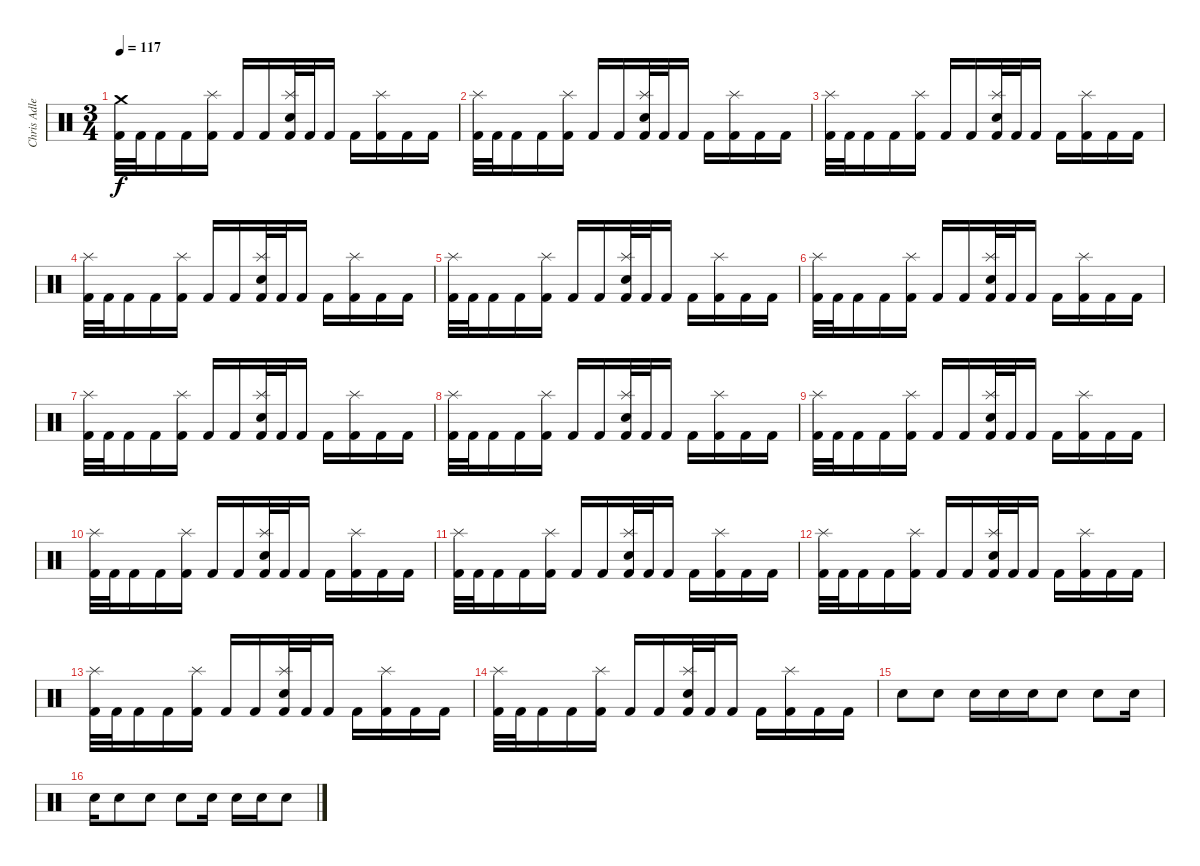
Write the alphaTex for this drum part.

\track ("Chris Adler" "Chris Adle") {instrument percussion}
\staff {score}
\articulation defaults
\ts (3 4)
\tempo 117
\clef neutral
\ks c
("Crash medium (hit)" "Kick (hit) 2").32{dy f} "Kick (hit) 2".32 "Kick (hit) 2".16 "Kick (hit) 2".16 ("Splash (hit)" "Kick (hit) 2").16 "Kick (hit) 2".16 "Kick (hit) 2".16 ("Splash (hit)" "Electric Snare (hit)" "Kick (hit) 2").32 "Kick (hit) 2".32 "Kick (hit) 2".16 "Kick (hit) 2".16 ("Splash (hit)" "Kick (hit) 2").16 "Kick (hit) 2".16 "Kick (hit) 2".16 |
("Splash (hit)" "Kick (hit) 2").32 "Kick (hit) 2".32 "Kick (hit) 2".16 "Kick (hit) 2".16 ("Splash (hit)" "Kick (hit) 2").16 "Kick (hit) 2".16 "Kick (hit) 2".16 ("Splash (hit)" "Electric Snare (hit)" "Kick (hit) 2").32 "Kick (hit) 2".32 "Kick (hit) 2".16 "Kick (hit) 2".16 ("Splash (hit)" "Kick (hit) 2").16 "Kick (hit) 2".16 "Kick (hit) 2".16 |
("Splash (hit)" "Kick (hit) 2").32 "Kick (hit) 2".32 "Kick (hit) 2".16 "Kick (hit) 2".16 ("Splash (hit)" "Kick (hit) 2").16 "Kick (hit) 2".16 "Kick (hit) 2".16 ("Splash (hit)" "Electric Snare (hit)" "Kick (hit) 2").32 "Kick (hit) 2".32 "Kick (hit) 2".16 "Kick (hit) 2".16 ("Splash (hit)" "Kick (hit) 2").16 "Kick (hit) 2".16 "Kick (hit) 2".16 |
("Splash (hit)" "Kick (hit) 2").32 "Kick (hit) 2".32 "Kick (hit) 2".16 "Kick (hit) 2".16 ("Splash (hit)" "Kick (hit) 2").16 "Kick (hit) 2".16 "Kick (hit) 2".16 ("Splash (hit)" "Electric Snare (hit)" "Kick (hit) 2").32 "Kick (hit) 2".32 "Kick (hit) 2".16 "Kick (hit) 2".16 ("Splash (hit)" "Kick (hit) 2").16 "Kick (hit) 2".16 "Kick (hit) 2".16 |
("Splash (hit)" "Kick (hit) 2").32 "Kick (hit) 2".32 "Kick (hit) 2".16 "Kick (hit) 2".16 ("Splash (hit)" "Kick (hit) 2").16 "Kick (hit) 2".16 "Kick (hit) 2".16 ("Splash (hit)" "Electric Snare (hit)" "Kick (hit) 2").32 "Kick (hit) 2".32 "Kick (hit) 2".16 "Kick (hit) 2".16 ("Splash (hit)" "Kick (hit) 2").16 "Kick (hit) 2".16 "Kick (hit) 2".16 |
("Splash (hit)" "Kick (hit) 2").32 "Kick (hit) 2".32 "Kick (hit) 2".16 "Kick (hit) 2".16 ("Splash (hit)" "Kick (hit) 2").16 "Kick (hit) 2".16 "Kick (hit) 2".16 ("Splash (hit)" "Electric Snare (hit)" "Kick (hit) 2").32 "Kick (hit) 2".32 "Kick (hit) 2".16 "Kick (hit) 2".16 ("Splash (hit)" "Kick (hit) 2").16 "Kick (hit) 2".16 "Kick (hit) 2".16 |
("Splash (hit)" "Kick (hit) 2").32 "Kick (hit) 2".32 "Kick (hit) 2".16 "Kick (hit) 2".16 ("Splash (hit)" "Kick (hit) 2").16 "Kick (hit) 2".16 "Kick (hit) 2".16 ("Splash (hit)" "Electric Snare (hit)" "Kick (hit) 2").32 "Kick (hit) 2".32 "Kick (hit) 2".16 "Kick (hit) 2".16 ("Splash (hit)" "Kick (hit) 2").16 "Kick (hit) 2".16 "Kick (hit) 2".16 |
("Splash (hit)" "Kick (hit) 2").32 "Kick (hit) 2".32 "Kick (hit) 2".16 "Kick (hit) 2".16 ("Splash (hit)" "Kick (hit) 2").16 "Kick (hit) 2".16 "Kick (hit) 2".16 ("Splash (hit)" "Electric Snare (hit)" "Kick (hit) 2").32 "Kick (hit) 2".32 "Kick (hit) 2".16 "Kick (hit) 2".16 ("Splash (hit)" "Kick (hit) 2").16 "Kick (hit) 2".16 "Kick (hit) 2".16 |
("Splash (hit)" "Kick (hit) 2").32 "Kick (hit) 2".32 "Kick (hit) 2".16 "Kick (hit) 2".16 ("Splash (hit)" "Kick (hit) 2").16 "Kick (hit) 2".16 "Kick (hit) 2".16 ("Splash (hit)" "Electric Snare (hit)" "Kick (hit) 2").32 "Kick (hit) 2".32 "Kick (hit) 2".16 "Kick (hit) 2".16 ("Splash (hit)" "Kick (hit) 2").16 "Kick (hit) 2".16 "Kick (hit) 2".16 |
("Splash (hit)" "Kick (hit) 2").32 "Kick (hit) 2".32 "Kick (hit) 2".16 "Kick (hit) 2".16 ("Splash (hit)" "Kick (hit) 2").16 "Kick (hit) 2".16 "Kick (hit) 2".16 ("Splash (hit)" "Electric Snare (hit)" "Kick (hit) 2").32 "Kick (hit) 2".32 "Kick (hit) 2".16 "Kick (hit) 2".16 ("Splash (hit)" "Kick (hit) 2").16 "Kick (hit) 2".16 "Kick (hit) 2".16 |
("Splash (hit)" "Kick (hit) 2").32 "Kick (hit) 2".32 "Kick (hit) 2".16 "Kick (hit) 2".16 ("Splash (hit)" "Kick (hit) 2").16 "Kick (hit) 2".16 "Kick (hit) 2".16 ("Splash (hit)" "Electric Snare (hit)" "Kick (hit) 2").32 "Kick (hit) 2".32 "Kick (hit) 2".16 "Kick (hit) 2".16 ("Splash (hit)" "Kick (hit) 2").16 "Kick (hit) 2".16 "Kick (hit) 2".16 |
("Splash (hit)" "Kick (hit) 2").32 "Kick (hit) 2".32 "Kick (hit) 2".16 "Kick (hit) 2".16 ("Splash (hit)" "Kick (hit) 2").16 "Kick (hit) 2".16 "Kick (hit) 2".16 ("Splash (hit)" "Electric Snare (hit)" "Kick (hit) 2").32 "Kick (hit) 2".32 "Kick (hit) 2".16 "Kick (hit) 2".16 ("Splash (hit)" "Kick (hit) 2").16 "Kick (hit) 2".16 "Kick (hit) 2".16 |
("Splash (hit)" "Kick (hit) 2").32 "Kick (hit) 2".32 "Kick (hit) 2".16 "Kick (hit) 2".16 ("Splash (hit)" "Kick (hit) 2").16 "Kick (hit) 2".16 "Kick (hit) 2".16 ("Splash (hit)" "Electric Snare (hit)" "Kick (hit) 2").32 "Kick (hit) 2".32 "Kick (hit) 2".16 "Kick (hit) 2".16 ("Splash (hit)" "Kick (hit) 2").16 "Kick (hit) 2".16 "Kick (hit) 2".16 |
("Splash (hit)" "Kick (hit) 2").32 "Kick (hit) 2".32 "Kick (hit) 2".16 "Kick (hit) 2".16 ("Splash (hit)" "Kick (hit) 2").16 "Kick (hit) 2".16 "Kick (hit) 2".16 ("Splash (hit)" "Electric Snare (hit)" "Kick (hit) 2").32 "Kick (hit) 2".32 "Kick (hit) 2".16 "Kick (hit) 2".16 ("Splash (hit)" "Kick (hit) 2").16 "Kick (hit) 2".16 "Kick (hit) 2".16 |
"Electric Snare (hit)".8 "Electric Snare (hit)".8 "Electric Snare (hit)".16 "Electric Snare (hit)".16 "Electric Snare (hit)".16 "Electric Snare (hit)".8 "Electric Snare (hit)".8 "Electric Snare (hit)".16 |
"Electric Snare (hit)".16 "Electric Snare (hit)".8 "Electric Snare (hit)".8 "Electric Snare (hit)".8 "Electric Snare (hit)".16 "Electric Snare (hit)".16 "Electric Snare (hit)".16 "Electric Snare (hit)".8
